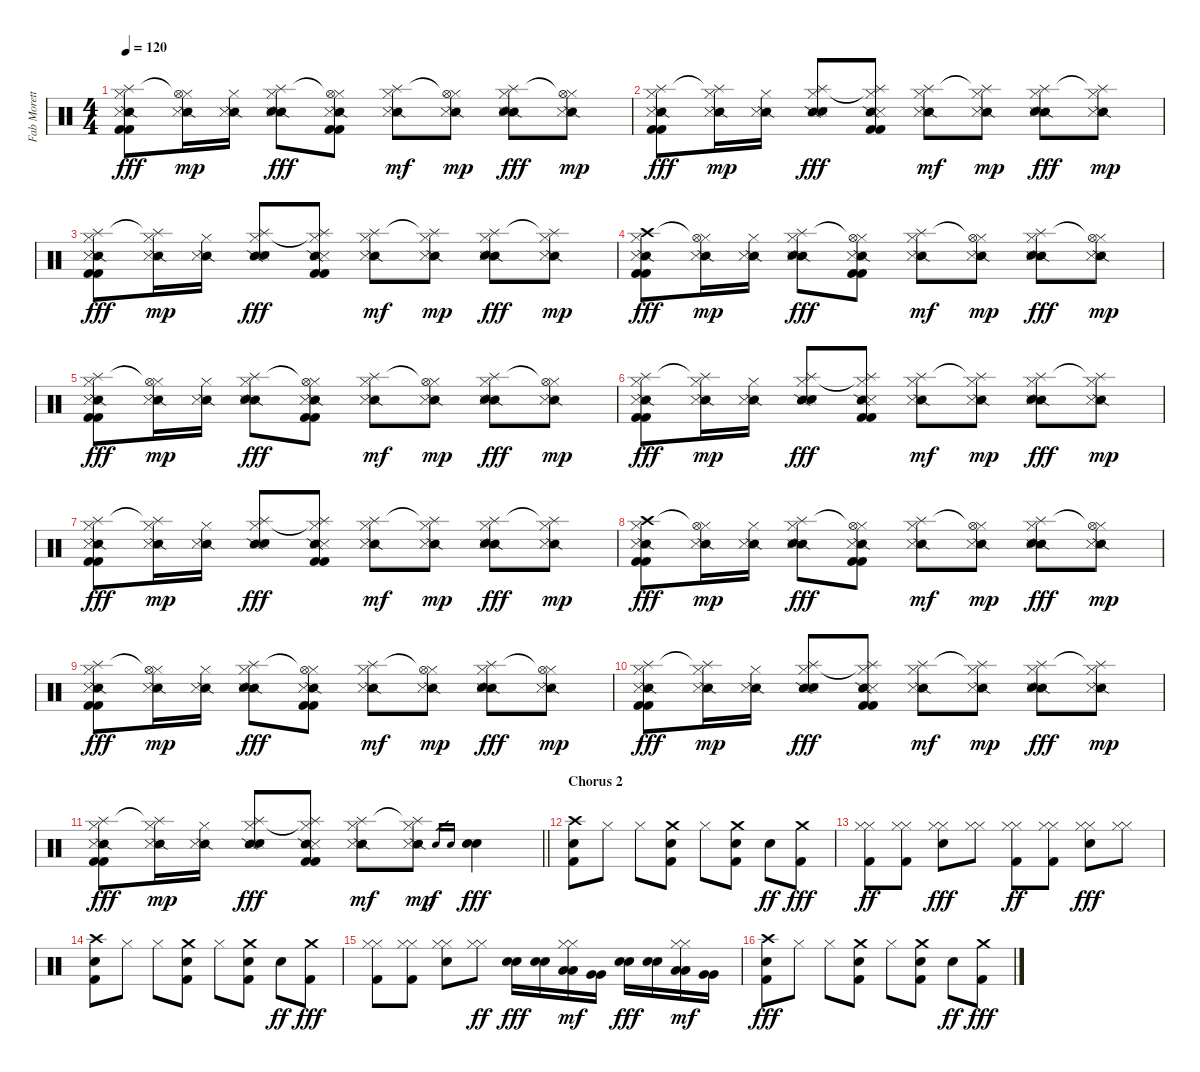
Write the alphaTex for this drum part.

\track ("Fab Moretti - Drums" "Fab Morett") {instrument percussion}
\staff {score}
\articulation defaults
\ts (4 4)
\tempo 120
\clef neutral
\ks c
("Snare (side stick) 2" "Metronome (hit)" "Hi-Hat (closed)" "Splash (hit)" "Kick (hit) 2" "Kick (hit) 2").8{dy fff} ("Snare (side stick) 2" "Metronome (hit)" "Hi-Hat (closed)" "Hi-Hat (open)"{t}).16{dy mp} ("Snare (side stick) 2" "Metronome (hit)" "Hi-Hat (closed)").16 ("Snare (side stick) 2" "Metronome (hit)" "Hi-Hat (closed)" "Splash (hit)" "Electric Snare (hit)").8{dy fff} ("Snare (side stick) 2" "Metronome (hit)" "Hi-Hat (closed)" "Hi-Hat (open)"{t} "Kick (hit) 2" "Kick (hit) 2").8 ("Snare (side stick) 2" "Metronome (hit)" "Hi-Hat (closed)" "Splash (hit)").8{dy mf} ("Snare (side stick) 2" "Metronome (hit)" "Hi-Hat (closed)" "Hi-Hat (open)"{t}).8{dy mp} ("Snare (side stick) 2" "Metronome (hit)" "Hi-Hat (closed)" "Splash (hit)" "Electric Snare (hit)").8{dy fff} ("Snare (side stick) 2" "Metronome (hit)" "Hi-Hat (closed)" "Hi-Hat (open)"{t}).8{dy mp} |
("Snare (side stick) 2" "Metronome (hit)" "Hi-Hat (closed)" "Splash (hit)" "Kick (hit) 2" "Kick (hit) 2").8{dy fff} ("Snare (side stick) 2" "Metronome (hit)" "Hi-Hat (closed)" "Splash (hit)"{t}).16{dy mp} ("Snare (side stick) 2" "Metronome (hit)" "Hi-Hat (closed)").16 ("Snare (side stick) 2" "Metronome (hit)" "Hi-Hat (closed)" "Splash (hit)" "Electric Snare (hit)").8{dy fff} ("Snare (side stick) 2" "Metronome (hit)" "Hi-Hat (closed)" "Splash (hit)"{t} "Kick (hit) 2" "Kick (hit) 2").8 ("Snare (side stick) 2" "Metronome (hit)" "Hi-Hat (closed)" "Splash (hit)").8{dy mf} ("Snare (side stick) 2" "Metronome (hit)" "Hi-Hat (closed)" "Splash (hit)"{t}).8{dy mp} ("Snare (side stick) 2" "Metronome (hit)" "Hi-Hat (closed)" "Splash (hit)" "Electric Snare (hit)").8{dy fff} ("Snare (side stick) 2" "Metronome (hit)" "Hi-Hat (closed)" "Splash (hit)"{t}).8{dy mp} |
("Snare (side stick) 2" "Metronome (hit)" "Hi-Hat (closed)" "Splash (hit)" "Kick (hit) 2" "Kick (hit) 2").8{dy fff} ("Snare (side stick) 2" "Metronome (hit)" "Hi-Hat (closed)" "Splash (hit)"{t}).16{dy mp} ("Snare (side stick) 2" "Metronome (hit)" "Hi-Hat (closed)").16 ("Snare (side stick) 2" "Metronome (hit)" "Hi-Hat (closed)" "Splash (hit)" "Electric Snare (hit)").8{dy fff} ("Snare (side stick) 2" "Metronome (hit)" "Hi-Hat (closed)" "Splash (hit)"{t} "Kick (hit) 2" "Kick (hit) 2").8 ("Snare (side stick) 2" "Metronome (hit)" "Hi-Hat (closed)" "Splash (hit)").8{dy mf} ("Snare (side stick) 2" "Metronome (hit)" "Hi-Hat (closed)" "Splash (hit)"{t}).8{dy mp} ("Snare (side stick) 2" "Metronome (hit)" "Hi-Hat (closed)" "Splash (hit)" "Electric Snare (hit)").8{dy fff} ("Snare (side stick) 2" "Metronome (hit)" "Hi-Hat (closed)" "Splash (hit)"{t}).8{dy mp} |
("Snare (side stick) 2" "Metronome (hit)" "Hi-Hat (closed)" "Crash high (hit)" "Kick (hit) 2" "Kick (hit) 2").8{dy fff} ("Snare (side stick) 2" "Metronome (hit)" "Hi-Hat (closed)" "Hi-Hat (open)"{t}).16{dy mp} ("Snare (side stick) 2" "Metronome (hit)" "Hi-Hat (closed)").16 ("Snare (side stick) 2" "Metronome (hit)" "Hi-Hat (closed)" "Splash (hit)" "Electric Snare (hit)").8{dy fff} ("Snare (side stick) 2" "Metronome (hit)" "Hi-Hat (closed)" "Hi-Hat (open)"{t} "Kick (hit) 2" "Kick (hit) 2").8 ("Snare (side stick) 2" "Metronome (hit)" "Hi-Hat (closed)" "Splash (hit)").8{dy mf} ("Snare (side stick) 2" "Metronome (hit)" "Hi-Hat (closed)" "Hi-Hat (open)"{t}).8{dy mp} ("Snare (side stick) 2" "Metronome (hit)" "Hi-Hat (closed)" "Splash (hit)" "Electric Snare (hit)").8{dy fff} ("Snare (side stick) 2" "Metronome (hit)" "Hi-Hat (closed)" "Hi-Hat (open)"{t}).8{dy mp} |
("Snare (side stick) 2" "Metronome (hit)" "Hi-Hat (closed)" "Splash (hit)" "Kick (hit) 2" "Kick (hit) 2").8{dy fff} ("Snare (side stick) 2" "Metronome (hit)" "Hi-Hat (closed)" "Hi-Hat (open)"{t}).16{dy mp} ("Snare (side stick) 2" "Metronome (hit)" "Hi-Hat (closed)").16 ("Snare (side stick) 2" "Metronome (hit)" "Hi-Hat (closed)" "Splash (hit)" "Electric Snare (hit)").8{dy fff} ("Snare (side stick) 2" "Metronome (hit)" "Hi-Hat (closed)" "Hi-Hat (open)"{t} "Kick (hit) 2" "Kick (hit) 2").8 ("Snare (side stick) 2" "Metronome (hit)" "Hi-Hat (closed)" "Splash (hit)").8{dy mf} ("Snare (side stick) 2" "Metronome (hit)" "Hi-Hat (closed)" "Hi-Hat (open)"{t}).8{dy mp} ("Snare (side stick) 2" "Metronome (hit)" "Hi-Hat (closed)" "Splash (hit)" "Electric Snare (hit)").8{dy fff} ("Snare (side stick) 2" "Metronome (hit)" "Hi-Hat (closed)" "Hi-Hat (open)"{t}).8{dy mp} |
("Snare (side stick) 2" "Metronome (hit)" "Hi-Hat (closed)" "Splash (hit)" "Kick (hit) 2" "Kick (hit) 2").8{dy fff} ("Snare (side stick) 2" "Metronome (hit)" "Hi-Hat (closed)" "Splash (hit)"{t}).16{dy mp} ("Snare (side stick) 2" "Metronome (hit)" "Hi-Hat (closed)").16 ("Snare (side stick) 2" "Metronome (hit)" "Hi-Hat (closed)" "Splash (hit)" "Electric Snare (hit)").8{dy fff} ("Snare (side stick) 2" "Metronome (hit)" "Hi-Hat (closed)" "Splash (hit)"{t} "Kick (hit) 2" "Kick (hit) 2").8 ("Snare (side stick) 2" "Metronome (hit)" "Hi-Hat (closed)" "Splash (hit)").8{dy mf} ("Snare (side stick) 2" "Metronome (hit)" "Hi-Hat (closed)" "Splash (hit)"{t}).8{dy mp} ("Snare (side stick) 2" "Metronome (hit)" "Hi-Hat (closed)" "Splash (hit)" "Electric Snare (hit)").8{dy fff} ("Snare (side stick) 2" "Metronome (hit)" "Hi-Hat (closed)" "Splash (hit)"{t}).8{dy mp} |
("Snare (side stick) 2" "Metronome (hit)" "Hi-Hat (closed)" "Splash (hit)" "Kick (hit) 2" "Kick (hit) 2").8{dy fff} ("Snare (side stick) 2" "Metronome (hit)" "Hi-Hat (closed)" "Splash (hit)"{t}).16{dy mp} ("Snare (side stick) 2" "Metronome (hit)" "Hi-Hat (closed)").16 ("Snare (side stick) 2" "Metronome (hit)" "Hi-Hat (closed)" "Splash (hit)" "Electric Snare (hit)").8{dy fff} ("Snare (side stick) 2" "Metronome (hit)" "Hi-Hat (closed)" "Splash (hit)"{t} "Kick (hit) 2" "Kick (hit) 2").8 ("Snare (side stick) 2" "Metronome (hit)" "Hi-Hat (closed)" "Splash (hit)").8{dy mf} ("Snare (side stick) 2" "Metronome (hit)" "Hi-Hat (closed)" "Splash (hit)"{t}).8{dy mp} ("Snare (side stick) 2" "Metronome (hit)" "Hi-Hat (closed)" "Splash (hit)" "Electric Snare (hit)").8{dy fff} ("Snare (side stick) 2" "Metronome (hit)" "Hi-Hat (closed)" "Splash (hit)"{t}).8{dy mp} |
("Snare (side stick) 2" "Metronome (hit)" "Hi-Hat (closed)" "Crash high (hit)" "Kick (hit) 2" "Kick (hit) 2").8{dy fff} ("Snare (side stick) 2" "Metronome (hit)" "Hi-Hat (closed)" "Hi-Hat (open)"{t}).16{dy mp} ("Snare (side stick) 2" "Metronome (hit)" "Hi-Hat (closed)").16 ("Snare (side stick) 2" "Metronome (hit)" "Hi-Hat (closed)" "Splash (hit)" "Electric Snare (hit)").8{dy fff} ("Snare (side stick) 2" "Metronome (hit)" "Hi-Hat (closed)" "Hi-Hat (open)"{t} "Kick (hit) 2" "Kick (hit) 2").8 ("Snare (side stick) 2" "Metronome (hit)" "Hi-Hat (closed)" "Splash (hit)").8{dy mf} ("Snare (side stick) 2" "Metronome (hit)" "Hi-Hat (closed)" "Hi-Hat (open)"{t}).8{dy mp} ("Snare (side stick) 2" "Metronome (hit)" "Hi-Hat (closed)" "Splash (hit)" "Electric Snare (hit)").8{dy fff} ("Snare (side stick) 2" "Metronome (hit)" "Hi-Hat (closed)" "Hi-Hat (open)"{t}).8{dy mp} |
("Snare (side stick) 2" "Metronome (hit)" "Hi-Hat (closed)" "Splash (hit)" "Kick (hit) 2" "Kick (hit) 2").8{dy fff} ("Snare (side stick) 2" "Metronome (hit)" "Hi-Hat (closed)" "Hi-Hat (open)"{t}).16{dy mp} ("Snare (side stick) 2" "Metronome (hit)" "Hi-Hat (closed)").16 ("Snare (side stick) 2" "Metronome (hit)" "Hi-Hat (closed)" "Splash (hit)" "Electric Snare (hit)").8{dy fff} ("Snare (side stick) 2" "Metronome (hit)" "Hi-Hat (closed)" "Hi-Hat (open)"{t} "Kick (hit) 2" "Kick (hit) 2").8 ("Snare (side stick) 2" "Metronome (hit)" "Hi-Hat (closed)" "Splash (hit)").8{dy mf} ("Snare (side stick) 2" "Metronome (hit)" "Hi-Hat (closed)" "Hi-Hat (open)"{t}).8{dy mp} ("Snare (side stick) 2" "Metronome (hit)" "Hi-Hat (closed)" "Splash (hit)" "Electric Snare (hit)").8{dy fff} ("Snare (side stick) 2" "Metronome (hit)" "Hi-Hat (closed)" "Hi-Hat (open)"{t}).8{dy mp} |
("Snare (side stick) 2" "Metronome (hit)" "Hi-Hat (closed)" "Splash (hit)" "Kick (hit) 2" "Kick (hit) 2").8{dy fff} ("Snare (side stick) 2" "Metronome (hit)" "Hi-Hat (closed)" "Splash (hit)"{t}).16{dy mp} ("Snare (side stick) 2" "Metronome (hit)" "Hi-Hat (closed)").16 ("Snare (side stick) 2" "Metronome (hit)" "Hi-Hat (closed)" "Splash (hit)" "Electric Snare (hit)").8{dy fff} ("Snare (side stick) 2" "Metronome (hit)" "Hi-Hat (closed)" "Splash (hit)"{t} "Kick (hit) 2" "Kick (hit) 2").8 ("Snare (side stick) 2" "Metronome (hit)" "Hi-Hat (closed)" "Splash (hit)").8{dy mf} ("Snare (side stick) 2" "Metronome (hit)" "Hi-Hat (closed)" "Splash (hit)"{t}).8{dy mp} ("Snare (side stick) 2" "Metronome (hit)" "Hi-Hat (closed)" "Splash (hit)" "Electric Snare (hit)").8{dy fff} ("Snare (side stick) 2" "Metronome (hit)" "Hi-Hat (closed)" "Splash (hit)"{t}).8{dy mp} |
\barLineRight lightlight
("Snare (side stick) 2" "Metronome (hit)" "Hi-Hat (closed)" "Splash (hit)" "Kick (hit) 2" "Kick (hit) 2").8{dy fff} ("Snare (side stick) 2" "Metronome (hit)" "Hi-Hat (closed)" "Splash (hit)"{t}).16{dy mp} ("Snare (side stick) 2" "Metronome (hit)" "Hi-Hat (closed)").16 ("Snare (side stick) 2" "Metronome (hit)" "Hi-Hat (closed)" "Splash (hit)" "Electric Snare (hit)").8{dy fff} ("Snare (side stick) 2" "Metronome (hit)" "Hi-Hat (closed)" "Splash (hit)"{t} "Kick (hit) 2" "Kick (hit) 2").8 ("Snare (side stick) 2" "Metronome (hit)" "Hi-Hat (closed)" "Splash (hit)").8{dy mf} ("Snare (side stick) 2" "Metronome (hit)" "Hi-Hat (closed)" "Splash (hit)"{t}).8{dy mp} "Electric Snare (hit)".16{gr dy f} "Electric Snare (hit)".16{gr} ("Electric Snare (hit)" "Electric Snare (hit)").4{dy fff} |
\section ("" "Chorus 2")
("Crash high (hit)" "Electric Snare (hit)" "Kick (hit) 2").8 "Hi-Hat (closed)".8 "Hi-Hat (closed)".8 ("Crash medium (hit)" "Electric Snare (hit)" "Kick (hit) 2").8 "Hi-Hat (closed)".8 ("Crash medium (hit)" "Electric Snare (hit)" "Kick (hit) 2").8 "Electric Snare (hit)".8{dy ff} ("Crash medium (hit)" "Kick (hit) 2").8{dy fff} |
("Hi-Hat (closed)" "Hi-Hat (closed)" "Kick (hit) 2").8{dy ff} ("Hi-Hat (closed)" "Hi-Hat (closed)" "Kick (hit) 2").8 ("Hi-Hat (closed)" "Hi-Hat (closed)" "Electric Snare (hit)").8{dy fff} ("Hi-Hat (closed)" "Hi-Hat (closed)").8 ("Hi-Hat (closed)" "Hi-Hat (closed)" "Kick (hit) 2").8{dy ff} ("Hi-Hat (closed)" "Hi-Hat (closed)" "Kick (hit) 2").8 ("Hi-Hat (closed)" "Hi-Hat (closed)" "Electric Snare (hit)").8{dy fff} ("Hi-Hat (closed)" "Hi-Hat (closed)").8 |
("Crash high (hit)" "Electric Snare (hit)" "Kick (hit) 2").8 "Hi-Hat (closed)".8 "Hi-Hat (closed)".8 ("Crash medium (hit)" "Electric Snare (hit)" "Kick (hit) 2").8 "Hi-Hat (closed)".8 ("Crash medium (hit)" "Electric Snare (hit)" "Kick (hit) 2").8 "Electric Snare (hit)".8{dy ff} ("Crash medium (hit)" "Kick (hit) 2").8{dy fff} |
("Hi-Hat (closed)" "Hi-Hat (closed)" "Kick (hit) 2").8 ("Hi-Hat (closed)" "Hi-Hat (closed)" "Kick (hit) 2").8 ("Hi-Hat (closed)" "Hi-Hat (closed)" "Electric Snare (hit)").8 ("Hi-Hat (closed)" "Hi-Hat (closed)").8{dy ff} ("Electric Snare (hit)" "Electric Snare (hit)").16{dy fff} ("Electric Snare (hit)" "Electric Snare (hit)").16 ("Hi-Hat (closed)" "Hi-Hat (closed)" "Low Tom (hit)" "Low Tom (hit)").16{dy mf} ("Very Low Tom (hit)" "Very Low Tom (hit)").16 ("Electric Snare (hit)" "Electric Snare (hit)").16{dy fff} ("Electric Snare (hit)" "Electric Snare (hit)").16 ("Hi-Hat (closed)" "Hi-Hat (closed)" "Low Tom (hit)" "Low Tom (hit)").16{dy mf} ("Very Low Tom (hit)" "Very Low Tom (hit)").16 |
("Crash high (hit)" "Electric Snare (hit)" "Kick (hit) 2").8{dy fff} "Hi-Hat (closed)".8 "Hi-Hat (closed)".8 ("Crash medium (hit)" "Electric Snare (hit)" "Kick (hit) 2").8 "Hi-Hat (closed)".8 ("Crash medium (hit)" "Electric Snare (hit)" "Kick (hit) 2").8 "Electric Snare (hit)".8{dy ff} ("Crash medium (hit)" "Kick (hit) 2").8{dy fff}
